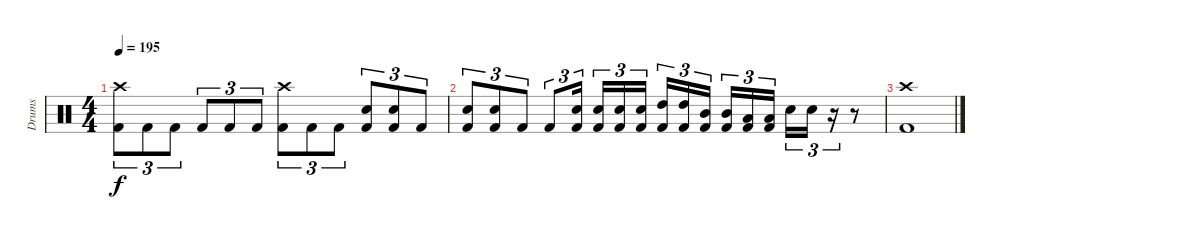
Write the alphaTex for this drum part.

\track ("Drums" "Drums") {instrument percussion}
\staff {score}
\articulation defaults
\ts (4 4)
\tempo 195
\clef neutral
\ks c
("Crash high (hit)" "Kick (hit) 2").8{tu (3 2) dy f} "Kick (hit) 2".8{tu (3 2)} "Kick (hit) 2".8{tu (3 2)} "Kick (hit) 2".8{tu (3 2)} "Kick (hit) 2".8{tu (3 2)} "Kick (hit) 2".8{tu (3 2)} ("Crash high (hit)" "Kick (hit) 2").8{tu (3 2)} "Kick (hit) 2".8{tu (3 2)} "Kick (hit) 2".8{tu (3 2)} ("Snare (hit) 2" "Kick (hit) 2").8{tu (3 2)} ("Snare (hit) 2" "Kick (hit) 2").8{tu (3 2)} "Kick (hit) 2".8{tu (3 2)} |
("Snare (hit) 2" "Kick (hit) 2").8{tu (3 2)} ("Snare (hit) 2" "Kick (hit) 2").8{tu (3 2)} "Kick (hit) 2".8{tu (3 2)} "Kick (hit) 2".8{tu (3 2)} ("Snare (hit) 2" "Kick (hit) 2").16{tu (3 2)} ("Snare (hit) 2" "Kick (hit) 2").16{tu (3 2)} ("Snare (hit) 2" "Kick (hit) 2").16{tu (3 2)} ("Snare (hit) 2" "Kick (hit) 2").16{tu (3 2)} ("Kick (hit) 2" "High Tom (hit)").16{tu (3 2)} ("Kick (hit) 2" "High Tom (hit)").16{tu (3 2)} ("Kick (hit) 2" "Mid Tom (hit)").16{tu (3 2)} ("Kick (hit) 2" "Mid Tom (hit)").16{tu (3 2)} ("Kick (hit) 2" "Low Tom (hit)").16{tu (3 2)} ("Kick (hit) 2" "Low Tom (hit)").16{tu (3 2)} "Snare (hit) 2".16{tu (3 2)} "Snare (hit) 2".16{tu (3 2)} r.16{tu (3 2)} r.8 |
("Crash high (hit)" "Kick (hit) 2").1
